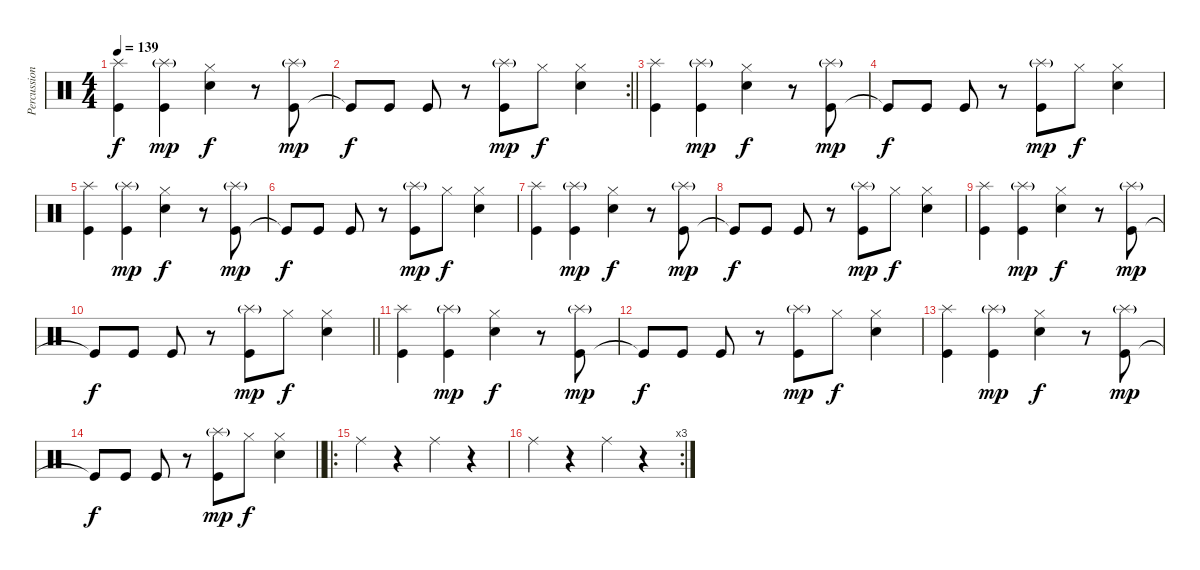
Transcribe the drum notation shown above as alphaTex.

\track ("Percussion" "Percussion") {instrument percussion}
\staff {score}
\articulation defaults
\ts (4 4)
\tempo 139
\clef neutral
\ks c
("Kick (hit)" "Splash (hit)").4{dy f} ("Kick (hit)" "Splash (hit)"{g}).4{dy mp} ("Snare (hit) 2" "Hi-Hat (closed)").4{dy f} r.8 ("Kick (hit)" "Splash (hit)"{g}).8{dy mp} |
\rc 2
\barLineRight lightlight "Kick (hit)"{t}.8{dy f} "Kick (hit)".8 "Kick (hit)".8
r.8 ("Kick (hit)" "Splash (hit)"{g}).8{dy mp} "Hi-Hat (closed)".8{dy f} ("Snare (hit) 2" "Hi-Hat (closed)").4 |
("Kick (hit)" "Splash (hit)").4 ("Kick (hit)" "Splash (hit)"{g}).4{dy mp} ("Snare (hit) 2" "Hi-Hat (closed)").4{dy f} r.8 ("Kick (hit)" "Splash (hit)"{g}).8{dy mp} |
"Kick (hit)"{t}.8{dy f} "Kick (hit)".8 "Kick (hit)".8 r.8 ("Kick (hit)" "Splash (hit)"{g}).8{dy mp} "Hi-Hat (closed)".8{dy f} ("Snare (hit) 2" "Hi-Hat (closed)").4 |
("Kick (hit)" "Splash (hit)").4 ("Kick (hit)" "Splash (hit)"{g}).4{dy mp} ("Snare (hit) 2" "Hi-Hat (closed)").4{dy f} r.8 ("Kick (hit)" "Splash (hit)"{g}).8{dy mp} |
"Kick (hit)"{t}.8{dy f} "Kick (hit)".8 "Kick (hit)".8 r.8 ("Kick (hit)" "Splash (hit)"{g}).8{dy mp} "Hi-Hat (closed)".8{dy f} ("Snare (hit) 2" "Hi-Hat (closed)").4 |
("Kick (hit)" "Splash (hit)").4 ("Kick (hit)" "Splash (hit)"{g}).4{dy mp} ("Snare (hit) 2" "Hi-Hat (closed)").4{dy f} r.8 ("Kick (hit)" "Splash (hit)"{g}).8{dy mp} |
"Kick (hit)"{t}.8{dy f} "Kick (hit)".8 "Kick (hit)".8 r.8 ("Kick (hit)" "Splash (hit)"{g}).8{dy mp} "Hi-Hat (closed)".8{dy f} ("Snare (hit) 2" "Hi-Hat (closed)").4 |
("Kick (hit)" "Splash (hit)").4 ("Kick (hit)" "Splash (hit)"{g}).4{dy mp} ("Snare (hit) 2" "Hi-Hat (closed)").4{dy f} r.8 ("Kick (hit)" "Splash (hit)"{g}).8{dy mp} |
\barLineRight lightlight "Kick (hit)"{t}.8{dy f} "Kick (hit)".8 "Kick (hit)".8
r.8 ("Kick (hit)" "Splash (hit)"{g}).8{dy mp} "Hi-Hat (closed)".8{dy f} ("Snare (hit) 2" "Hi-Hat (closed)").4 |
("Kick (hit)" "Splash (hit)").4 ("Kick (hit)" "Splash (hit)"{g}).4{dy mp} ("Snare (hit) 2" "Hi-Hat (closed)").4{dy f} r.8 ("Kick (hit)" "Splash (hit)"{g}).8{dy mp} |
"Kick (hit)"{t}.8{dy f} "Kick (hit)".8 "Kick (hit)".8 r.8 ("Kick (hit)" "Splash (hit)"{g}).8{dy mp} "Hi-Hat (closed)".8{dy f} ("Snare (hit) 2" "Hi-Hat (closed)").4 |
("Kick (hit)" "Splash (hit)").4 ("Kick (hit)" "Splash (hit)"{g}).4{dy mp} ("Snare (hit) 2" "Hi-Hat (closed)").4{dy f} r.8 ("Kick (hit)" "Splash (hit)"{g}).8{dy mp} |
\barLineRight lightlight "Kick (hit)"{t}.8{dy f} "Kick (hit)".8 "Kick (hit)".8
r.8 ("Kick (hit)" "Splash (hit)"{g}).8{dy mp} "Hi-Hat (closed)".8{dy f} ("Snare (hit) 2" "Hi-Hat (closed)").4 |
\ro "Ride (middle)".4{volume 3}
r.4 "Ride (middle)".4 r.4 |
\rc 3 "Ride (middle)".4
r.4 "Ride (middle)".4 r.4
